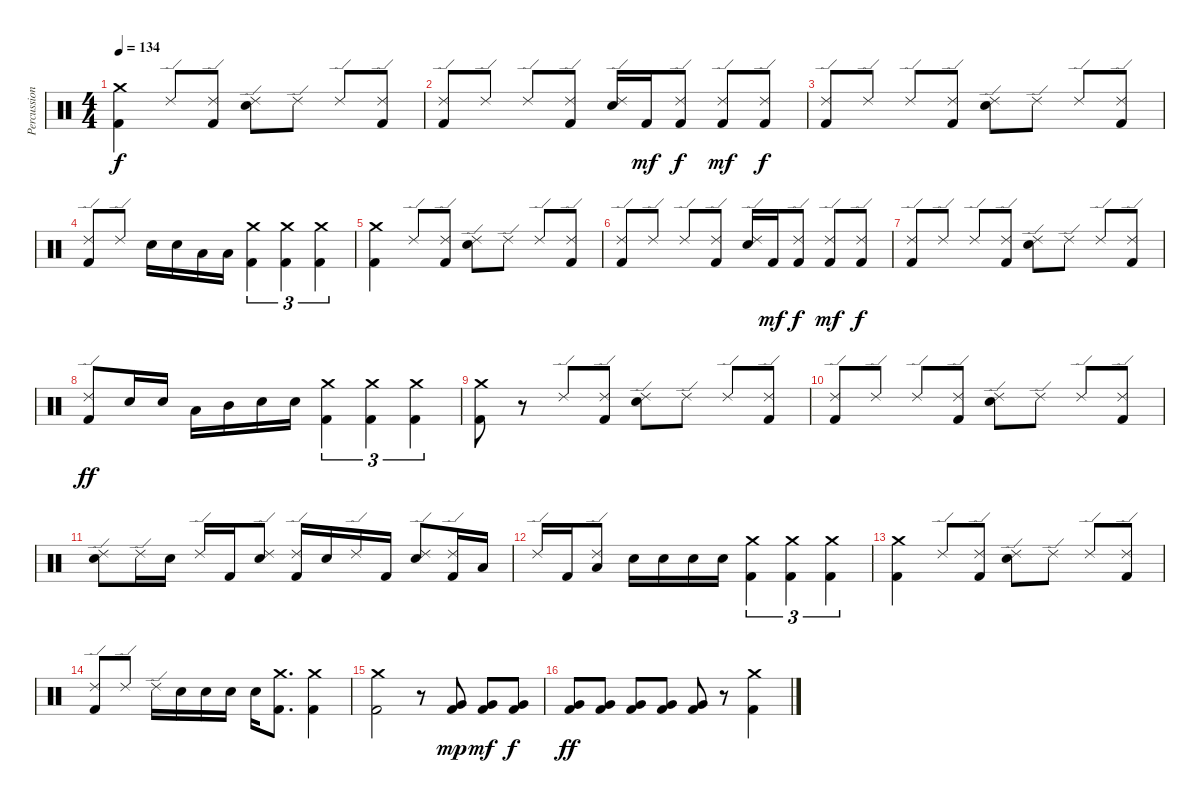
\track ("Percussion" "Percussion") {instrument percussion}
\staff {score}
\articulation defaults
\ts (4 4)
\tempo 134
\clef neutral
\ks c
("Kick (hit) 2" "Crash medium (hit)").4{dy f} "Ride (edge) 2".8 ("Kick (hit) 2" "Ride (edge) 2").8 ("Electric Snare (hit)" "Ride (edge) 2").8 "Ride (edge) 2".8 "Ride (edge) 2".8 ("Kick (hit) 2" "Ride (edge) 2").8 |
("Kick (hit) 2" "Ride (edge) 2").8 "Ride (edge) 2".8 "Ride (edge) 2".8 ("Kick (hit) 2" "Ride (edge) 2").8 ("Electric Snare (hit)" "Ride (edge) 2").16 "Kick (hit) 2".16{dy mf} ("Kick (hit) 2" "Ride (edge) 2").8{dy f} ("Kick (hit) 2" "Ride (edge) 2").8{dy mf} ("Kick (hit) 2" "Ride (edge) 2").8{dy f} |
("Kick (hit) 2" "Ride (edge) 2").8 "Ride (edge) 2".8 "Ride (edge) 2".8 ("Kick (hit) 2" "Ride (edge) 2").8 ("Electric Snare (hit)" "Ride (edge) 2").8 "Ride (edge) 2".8 "Ride (edge) 2".8 ("Kick (hit) 2" "Ride (edge) 2").8 |
("Kick (hit) 2" "Ride (edge) 2").8 "Ride (edge) 2".8 "Electric Snare (hit)".16 "Electric Snare (hit)".16 "Low Tom (hit)".16 "Low Tom (hit)".16 ("Kick (hit) 2" "Crash medium (hit)").4{tu (3 2)} ("Kick (hit) 2" "Crash medium (hit)").4{tu (3 2)} ("Kick (hit) 2" "Crash medium (hit)").4{tu (3 2)} |
("Kick (hit) 2" "Crash medium (hit)").4 "Ride (edge) 2".8 ("Kick (hit) 2" "Ride (edge) 2").8 ("Electric Snare (hit)" "Ride (edge) 2").8 "Ride (edge) 2".8 "Ride (edge) 2".8 ("Kick (hit) 2" "Ride (edge) 2").8 |
("Kick (hit) 2" "Ride (edge) 2").8 "Ride (edge) 2".8 "Ride (edge) 2".8 ("Kick (hit) 2" "Ride (edge) 2").8 ("Electric Snare (hit)" "Ride (edge) 2").16 "Kick (hit) 2".16{dy mf} ("Kick (hit) 2" "Ride (edge) 2").8{dy f} ("Kick (hit) 2" "Ride (edge) 2").8{dy mf} ("Kick (hit) 2" "Ride (edge) 2").8{dy f} |
("Kick (hit) 2" "Ride (edge) 2").8 "Ride (edge) 2".8 "Ride (edge) 2".8 ("Kick (hit) 2" "Ride (edge) 2").8 ("Electric Snare (hit)" "Ride (edge) 2").8 "Ride (edge) 2".8 "Ride (edge) 2".8 ("Kick (hit) 2" "Ride (edge) 2").8 |
("Kick (hit) 2" "Ride (edge) 2").8{dy ff} "Electric Snare (hit)".16 "Electric Snare (hit)".16 "Low Tom (hit)".16 "Mid Tom (hit)".16 "Electric Snare (hit)".16 "Electric Snare (hit)".16 ("Kick (hit) 2" "Crash medium (hit)").4{tu (3 2)} ("Kick (hit) 2" "Crash medium (hit)").4{tu (3 2)} ("Kick (hit) 2" "Crash medium (hit)").4{tu (3 2)} |
("Kick (hit) 2" "Crash medium (hit)").8 r.8 "Ride (edge) 2".8 ("Kick (hit) 2" "Ride (edge) 2").8 ("Electric Snare (hit)" "Ride (edge) 2").8 "Ride (edge) 2".8 "Ride (edge) 2".8 ("Kick (hit) 2" "Ride (edge) 2").8 |
("Kick (hit) 2" "Ride (edge) 2").8 "Ride (edge) 2".8 "Ride (edge) 2".8 ("Kick (hit) 2" "Ride (edge) 2").8 ("Electric Snare (hit)" "Ride (edge) 2").8 "Ride (edge) 2".8 "Ride (edge) 2".8 ("Kick (hit) 2" "Ride (edge) 2").8 |
("Electric Snare (hit)" "Ride (edge) 2").8 "Ride (edge) 2".16 "Electric Snare (hit)".16 "Ride (edge) 2".16 "Kick (hit) 2".16 ("Electric Snare (hit)" "Ride (edge) 2").8 ("Kick (hit) 2" "Ride (edge) 2").16 "Electric Snare (hit)".16 "Ride (edge) 2".16 "Kick (hit) 2".16 ("Electric Snare (hit)" "Ride (edge) 2").8 ("Kick (hit) 2" "Ride (edge) 2").16 "Low Tom (hit)".16 |
"Ride (edge) 2".16 "Kick (hit) 2".16 ("Low Tom (hit)" "Ride (edge) 2").8 "Electric Snare (hit)".16 "Electric Snare (hit)".16 "Electric Snare (hit)".16 "Electric Snare (hit)".16 ("Kick (hit) 2" "Crash medium (hit)").4{tu (3 2)} ("Kick (hit) 2" "Crash medium (hit)").4{tu (3 2)} ("Kick (hit) 2" "Crash medium (hit)").4{tu (3 2)} |
("Kick (hit) 2" "Crash medium (hit)").4 "Ride (edge) 2".8 ("Kick (hit) 2" "Ride (edge) 2").8 ("Electric Snare (hit)" "Ride (edge) 2").8 "Ride (edge) 2".8 "Ride (edge) 2".8 ("Kick (hit) 2" "Ride (edge) 2").8 |
("Kick (hit) 2" "Ride (edge) 2").8 "Ride (edge) 2".8 "Ride (edge) 2".16 "Electric Snare (hit)".16 "Electric Snare (hit)".16 "Electric Snare (hit)".16 "Electric Snare (hit)".16 ("Kick (hit) 2" "Crash medium (hit)").8{d} ("Kick (hit) 2" "Crash medium (hit)").4 |
("Kick (hit) 2" "Crash medium (hit)").2 r.8 ("Kick (hit) 2" "Very Low Tom (hit)").8{dy mp} ("Kick (hit) 2" "Very Low Tom (hit)").8{dy mf} ("Kick (hit) 2" "Very Low Tom (hit)").8{dy f} |
("Kick (hit) 2" "Very Low Tom (hit)").8{dy ff} ("Kick (hit) 2" "Very Low Tom (hit)").8 ("Kick (hit) 2" "Very Low Tom (hit)").8 ("Kick (hit) 2" "Very Low Tom (hit)").8 ("Kick (hit) 2" "Very Low Tom (hit)").8 r.8 ("Kick (hit) 2" "Crash medium (hit)").4
